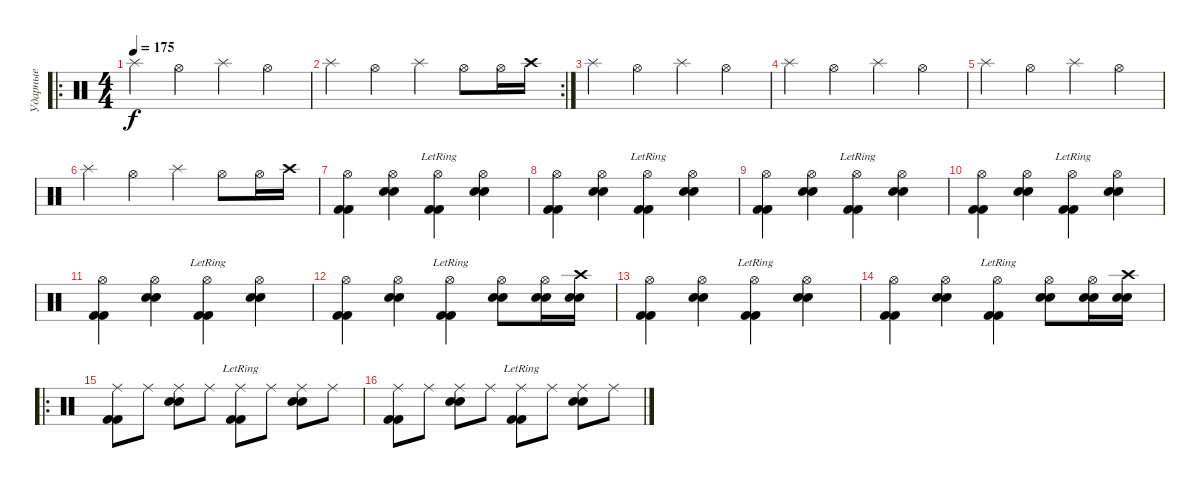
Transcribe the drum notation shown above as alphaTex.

\track ("Ударные" "Ударные") {instrument percussion}
\staff {score}
\articulation defaults
\ro
\ts (4 4)
\tempo 175
\clef neutral
\ks c "Splash (hit)".4{dy f} "Hi-Hat (open)".4 "Splash (hit)".4 "Hi-Hat (open)".4
|
\rc 2 "Splash (hit)".4 "Hi-Hat (open)".4 "Splash (hit)".4 "Hi-Hat (open)".8 "Hi-Hat (open)".16 "Crash high (hit)".16
|
"Splash (hit)".4 "Hi-Hat (open)".4 "Splash (hit)".4 "Hi-Hat (open)".4 |
"Splash (hit)".4 "Hi-Hat (open)".4 "Splash (hit)".4 "Hi-Hat (open)".4 |
"Splash (hit)".4 "Hi-Hat (open)".4 "Splash (hit)".4 "Hi-Hat (open)".4 |
"Splash (hit)".4 "Hi-Hat (open)".4 "Splash (hit)".4 "Hi-Hat (open)".8 "Hi-Hat (open)".16 "Crash high (hit)".16 |
("Hi-Hat (open)" "Kick (hit) 2" "Kick (hit) 2").4 ("Hi-Hat (open)" "Electric Snare (hit)" "Electric Snare (hit)").4 ("Hi-Hat (open)" "Kick (hit) 2"{lr} "Kick (hit) 2").4 ("Hi-Hat (open)" "Electric Snare (hit)" "Electric Snare (hit)").4 |
("Hi-Hat (open)" "Kick (hit) 2" "Kick (hit) 2").4 ("Hi-Hat (open)" "Electric Snare (hit)" "Electric Snare (hit)").4 ("Hi-Hat (open)" "Kick (hit) 2"{lr} "Kick (hit) 2").4 ("Hi-Hat (open)" "Electric Snare (hit)" "Electric Snare (hit)").4 |
("Hi-Hat (open)" "Kick (hit) 2" "Kick (hit) 2").4 ("Hi-Hat (open)" "Electric Snare (hit)" "Electric Snare (hit)").4 ("Hi-Hat (open)" "Kick (hit) 2"{lr} "Kick (hit) 2").4 ("Hi-Hat (open)" "Electric Snare (hit)" "Electric Snare (hit)").4 |
("Hi-Hat (open)" "Kick (hit) 2" "Kick (hit) 2").4 ("Hi-Hat (open)" "Electric Snare (hit)" "Electric Snare (hit)").4 ("Hi-Hat (open)" "Kick (hit) 2"{lr} "Kick (hit) 2").4 ("Hi-Hat (open)" "Electric Snare (hit)" "Electric Snare (hit)").4 |
("Hi-Hat (open)" "Kick (hit) 2" "Kick (hit) 2").4 ("Hi-Hat (open)" "Electric Snare (hit)" "Electric Snare (hit)").4 ("Hi-Hat (open)" "Kick (hit) 2"{lr} "Kick (hit) 2").4 ("Hi-Hat (open)" "Electric Snare (hit)" "Electric Snare (hit)").4 |
("Hi-Hat (open)" "Kick (hit) 2" "Kick (hit) 2").4 ("Hi-Hat (open)" "Electric Snare (hit)" "Electric Snare (hit)").4 ("Hi-Hat (open)" "Kick (hit) 2"{lr} "Kick (hit) 2").4 ("Hi-Hat (open)" "Electric Snare (hit)" "Electric Snare (hit)").8 ("Hi-Hat (open)" "Electric Snare (hit)" "Electric Snare (hit)").16 ("Crash high (hit)" "Electric Snare (hit)" "Electric Snare (hit)").16 |
("Hi-Hat (open)" "Kick (hit) 2" "Kick (hit) 2").4 ("Hi-Hat (open)" "Electric Snare (hit)" "Electric Snare (hit)").4 ("Hi-Hat (open)" "Kick (hit) 2"{lr} "Kick (hit) 2").4 ("Hi-Hat (open)" "Electric Snare (hit)" "Electric Snare (hit)").4 |
("Hi-Hat (open)" "Kick (hit) 2" "Kick (hit) 2").4 ("Hi-Hat (open)" "Electric Snare (hit)" "Electric Snare (hit)").4 ("Hi-Hat (open)" "Kick (hit) 2"{lr} "Kick (hit) 2").4 ("Hi-Hat (open)" "Electric Snare (hit)" "Electric Snare (hit)").8 ("Hi-Hat (open)" "Electric Snare (hit)" "Electric Snare (hit)").16 ("Crash high (hit)" "Electric Snare (hit)" "Electric Snare (hit)").16 |
\ro
("Ride (middle)" "Kick (hit) 2" "Kick (hit) 2").8 "Ride (middle)".8 ("Ride (middle)" "Electric Snare (hit)" "Electric Snare (hit)").8 "Ride (middle)".8 ("Ride (middle)" "Kick (hit) 2"{lr} "Kick (hit) 2").8 "Ride (middle)".8 ("Ride (middle)" "Electric Snare (hit)" "Electric Snare (hit)").8 "Ride (middle)".8 |
("Ride (middle)" "Kick (hit) 2" "Kick (hit) 2").8 "Ride (middle)".8 ("Ride (middle)" "Electric Snare (hit)" "Electric Snare (hit)").8 "Ride (middle)".8 ("Ride (middle)" "Kick (hit) 2"{lr} "Kick (hit) 2").8 "Ride (middle)".8 ("Ride (middle)" "Electric Snare (hit)" "Electric Snare (hit)").8 "Ride (middle)".8
